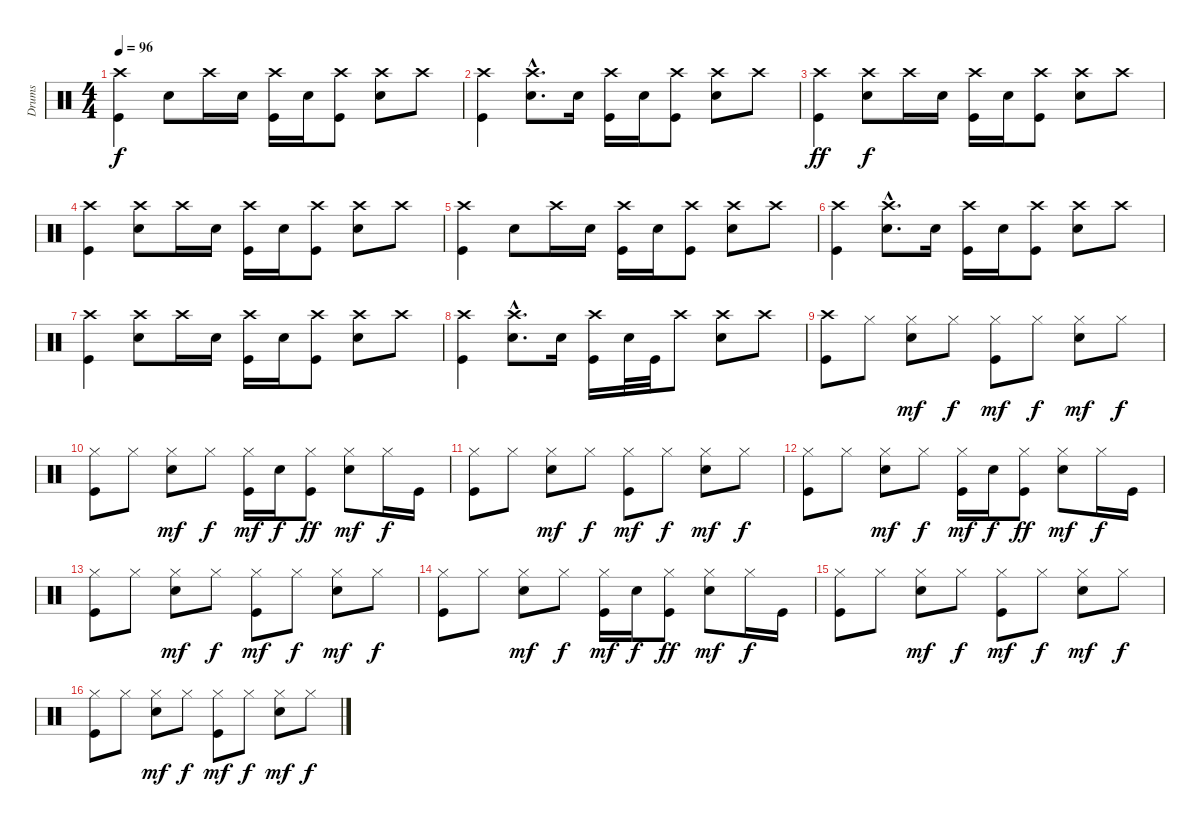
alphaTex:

\track ("Drums" "Drums") {instrument percussion}
\staff {score}
\articulation defaults
\ts (4 4)
\tempo 96
\clef neutral
\ks c
("Kick (hit)" "Crash high (hit)").4{dy f} "Electric Snare (hit)".8 "Crash high (hit)".16 "Electric Snare (hit)".16 ("Kick (hit)" "Crash high (hit)").16 "Electric Snare (hit)".16 ("Kick (hit)" "Crash high (hit)").8 ("Electric Snare (hit)" "Crash high (hit)").8 "Crash high (hit)".8 |
("Kick (hit)" "Crash high (hit)").4 ("Electric Snare (hit)"{hac} "Crash high (hit)"{hac}).8{d} "Electric Snare (hit)".16 ("Kick (hit)" "Crash high (hit)").16 "Electric Snare (hit)".16 ("Kick (hit)" "Crash high (hit)").8 ("Electric Snare (hit)" "Crash high (hit)").8 "Crash high (hit)".8 |
("Kick (hit)" "Crash high (hit)").4{dy ff} ("Electric Snare (hit)" "Crash high (hit)").8{dy f} "Crash high (hit)".16 "Electric Snare (hit)".16 ("Kick (hit)" "Crash high (hit)").16 "Electric Snare (hit)".16 ("Kick (hit)" "Crash high (hit)").8 ("Electric Snare (hit)" "Crash high (hit)").8 "Crash high (hit)".8 |
("Kick (hit)" "Crash high (hit)").4 ("Electric Snare (hit)" "Crash high (hit)").8 "Crash high (hit)".16 "Electric Snare (hit)".16 ("Kick (hit)" "Crash high (hit)").16 "Electric Snare (hit)".16 ("Kick (hit)" "Crash high (hit)").8 ("Electric Snare (hit)" "Crash high (hit)").8 "Crash high (hit)".8 |
("Kick (hit)" "Crash high (hit)").4 "Electric Snare (hit)".8 "Crash high (hit)".16 "Electric Snare (hit)".16 ("Kick (hit)" "Crash high (hit)").16 "Electric Snare (hit)".16 ("Kick (hit)" "Crash high (hit)").8 ("Electric Snare (hit)" "Crash high (hit)").8 "Crash high (hit)".8 |
("Kick (hit)" "Crash high (hit)").4 ("Electric Snare (hit)"{hac} "Crash high (hit)"{hac}).8{d} "Electric Snare (hit)".16 ("Kick (hit)" "Crash high (hit)").16 "Electric Snare (hit)".16 ("Kick (hit)" "Crash high (hit)").8 ("Electric Snare (hit)" "Crash high (hit)").8 "Crash high (hit)".8 |
("Kick (hit)" "Crash high (hit)").4 ("Electric Snare (hit)" "Crash high (hit)").8 "Crash high (hit)".16 "Electric Snare (hit)".16 ("Kick (hit)" "Crash high (hit)").16 "Electric Snare (hit)".16 ("Kick (hit)" "Crash high (hit)").8 ("Electric Snare (hit)" "Crash high (hit)").8 "Crash high (hit)".8 |
("Kick (hit)" "Crash high (hit)").4 ("Electric Snare (hit)"{hac} "Crash high (hit)"{hac}).8{d} "Electric Snare (hit)".16 ("Kick (hit)" "Crash high (hit)").16 "Electric Snare (hit)".32 "Kick (hit)".32 "Crash high (hit)".8 ("Electric Snare (hit)" "Crash high (hit)").8 "Crash high (hit)".8 |
("Kick (hit)" "Crash high (hit)").8 "Hi-Hat (closed)".8 ("Hi-Hat (closed)" "Electric Snare (hit)").8{dy mf} "Hi-Hat (closed)".8{dy f} ("Kick (hit)" "Hi-Hat (closed)").8{dy mf} "Hi-Hat (closed)".8{dy f} ("Hi-Hat (closed)" "Electric Snare (hit)").8{dy mf} "Hi-Hat (closed)".8{dy f} |
("Kick (hit)" "Hi-Hat (closed)").8 "Hi-Hat (closed)".8 ("Hi-Hat (closed)" "Electric Snare (hit)").8{dy mf} "Hi-Hat (closed)".8{dy f} ("Kick (hit)" "Hi-Hat (closed)").16{dy mf} "Electric Snare (hit)".16{dy f} ("Kick (hit)" "Hi-Hat (closed)").8{dy ff} ("Hi-Hat (closed)" "Electric Snare (hit)").8{dy mf} "Hi-Hat (closed)".16{dy f} "Kick (hit)".16 |
("Kick (hit)" "Hi-Hat (closed)").8 "Hi-Hat (closed)".8 ("Hi-Hat (closed)" "Electric Snare (hit)").8{dy mf} "Hi-Hat (closed)".8{dy f} ("Kick (hit)" "Hi-Hat (closed)").8{dy mf} "Hi-Hat (closed)".8{dy f} ("Hi-Hat (closed)" "Electric Snare (hit)").8{dy mf} "Hi-Hat (closed)".8{dy f} |
("Kick (hit)" "Hi-Hat (closed)").8 "Hi-Hat (closed)".8 ("Hi-Hat (closed)" "Electric Snare (hit)").8{dy mf} "Hi-Hat (closed)".8{dy f} ("Kick (hit)" "Hi-Hat (closed)").16{dy mf} "Electric Snare (hit)".16{dy f} ("Kick (hit)" "Hi-Hat (closed)").8{dy ff} ("Hi-Hat (closed)" "Electric Snare (hit)").8{dy mf} "Hi-Hat (closed)".16{dy f} "Kick (hit)".16 |
("Kick (hit)" "Hi-Hat (closed)").8 "Hi-Hat (closed)".8 ("Hi-Hat (closed)" "Electric Snare (hit)").8{dy mf} "Hi-Hat (closed)".8{dy f} ("Kick (hit)" "Hi-Hat (closed)").8{dy mf} "Hi-Hat (closed)".8{dy f} ("Hi-Hat (closed)" "Electric Snare (hit)").8{dy mf} "Hi-Hat (closed)".8{dy f} |
("Kick (hit)" "Hi-Hat (closed)").8 "Hi-Hat (closed)".8 ("Hi-Hat (closed)" "Electric Snare (hit)").8{dy mf} "Hi-Hat (closed)".8{dy f} ("Kick (hit)" "Hi-Hat (closed)").16{dy mf} "Electric Snare (hit)".16{dy f} ("Kick (hit)" "Hi-Hat (closed)").8{dy ff} ("Hi-Hat (closed)" "Electric Snare (hit)").8{dy mf} "Hi-Hat (closed)".16{dy f} "Kick (hit)".16 |
("Kick (hit)" "Hi-Hat (closed)").8 "Hi-Hat (closed)".8 ("Hi-Hat (closed)" "Electric Snare (hit)").8{dy mf} "Hi-Hat (closed)".8{dy f} ("Kick (hit)" "Hi-Hat (closed)").8{dy mf} "Hi-Hat (closed)".8{dy f} ("Hi-Hat (closed)" "Electric Snare (hit)").8{dy mf} "Hi-Hat (closed)".8{dy f} |
("Kick (hit)" "Hi-Hat (closed)").8 "Hi-Hat (closed)".8 ("Hi-Hat (closed)" "Electric Snare (hit)").8{dy mf} "Hi-Hat (closed)".8{dy f} ("Kick (hit)" "Hi-Hat (closed)").8{dy mf} "Hi-Hat (closed)".8{dy f} ("Hi-Hat (closed)" "Electric Snare (hit)").8{dy mf} "Hi-Hat (closed)".8{dy f}
